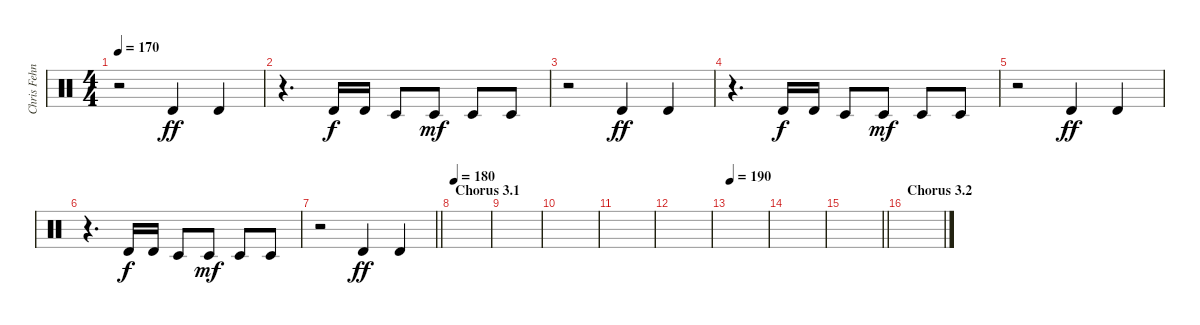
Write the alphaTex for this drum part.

\track ("Chris Fehn" "Chris Fehn") {instrument percussion}
\staff {score}
\articulation defaults
\ts (4 4)
\tempo 170
\clef neutral
\ks c
r.2{dy mf} "Timbale high (hit)".4{dy ff} "Timbale high (hit)".4 |
r.4{d} "Timbale high (hit)".16{dy f} "Timbale high (hit)".16 "Timbale low (hit)".8 "Timbale low (hit)".8{dy mf} "Timbale low (hit)".8 "Timbale low (hit)".8 |
r.2 "Timbale high (hit)".4{dy ff} "Timbale high (hit)".4 |
r.4{d} "Timbale high (hit)".16{dy f} "Timbale high (hit)".16 "Timbale low (hit)".8 "Timbale low (hit)".8{dy mf} "Timbale low (hit)".8 "Timbale low (hit)".8 |
r.2 "Timbale high (hit)".4{dy ff} "Timbale high (hit)".4 |
r.4{d} "Timbale high (hit)".16{dy f} "Timbale high (hit)".16 "Timbale low (hit)".8 "Timbale low (hit)".8{dy mf} "Timbale low (hit)".8 "Timbale low (hit)".8 |
\barLineRight lightlight
r.2 "Timbale high (hit)".4{dy ff} "Timbale high (hit)".4 |
\section ("" "Chorus 3.1")
\tempo 180
|
|
|
|
|
\tempo 190
|
|
\barLineRight lightlight
|
\section ("" "Chorus 3.2")
